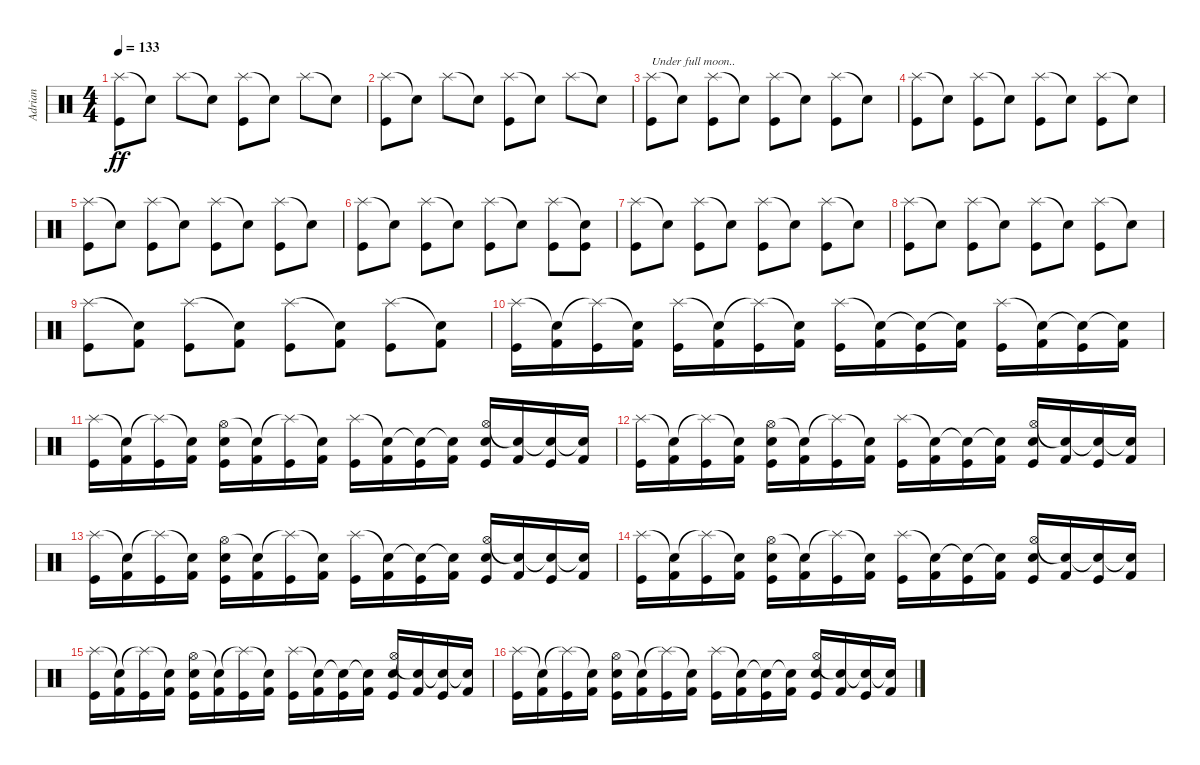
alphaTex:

\track ("Adrian" "Adrian") {instrument percussion}
\staff {score}
\articulation defaults
\ts (4 4)
\tempo 133
\clef neutral
\ks c
("Splash (hit)" "Kick (hit)").8{dy ff} "Snare (hit)"{t}.8 "Splash (hit)".8 "Snare (hit)"{t}.8 ("Splash (hit)" "Kick (hit)").8 "Snare (hit)"{t}.8 "Splash (hit)".8 "Snare (hit)"{t}.8 |
("Splash (hit)" "Kick (hit)").8 "Snare (hit)"{t}.8 "Splash (hit)".8 "Snare (hit)"{t}.8 ("Splash (hit)" "Kick (hit)").8 "Snare (hit)"{t}.8 "Splash (hit)".8 "Snare (hit)"{t}.8 |
("Splash (hit)" "Kick (hit)").8{txt "Under full moon.."} "Snare (hit)"{t}.8 ("Splash (hit)" "Kick (hit)").8 "Snare (hit)"{t}.8 ("Splash (hit)" "Kick (hit)").8 "Snare (hit)"{t}.8 ("Splash (hit)" "Kick (hit)").8 "Snare (hit)"{t}.8 |
("Splash (hit)" "Kick (hit)").8 "Snare (hit)"{t}.8 ("Splash (hit)" "Kick (hit)").8 "Snare (hit)"{t}.8 ("Splash (hit)" "Kick (hit)").8 "Snare (hit)"{t}.8 ("Splash (hit)" "Kick (hit)").8 "Snare (hit)"{t}.8 |
("Splash (hit)" "Kick (hit)").8 "Snare (hit)"{t}.8 ("Splash (hit)" "Kick (hit)").8 "Snare (hit)"{t}.8 ("Splash (hit)" "Kick (hit)").8 "Snare (hit)"{t}.8 ("Splash (hit)" "Kick (hit)").8 "Snare (hit)"{t}.8 |
("Splash (hit)" "Kick (hit)").8 "Snare (hit)"{t}.8 ("Splash (hit)" "Kick (hit)").8 "Snare (hit)"{t}.8 ("Splash (hit)" "Kick (hit)").8 "Snare (hit)"{t}.8 ("Splash (hit)" "Kick (hit)").8 ("Snare (hit)"{t} "Kick (hit)").8 |
("Splash (hit)" "Kick (hit)").8 "Snare (hit)"{t}.8 ("Splash (hit)" "Kick (hit)").8 "Snare (hit)"{t}.8 ("Splash (hit)" "Kick (hit)").8 "Snare (hit)"{t}.8 ("Splash (hit)" "Kick (hit)").8 "Snare (hit)"{t}.8 |
("Splash (hit)" "Kick (hit)").8 "Snare (hit)"{t}.8 ("Splash (hit)" "Kick (hit)").8 "Snare (hit)"{t}.8 ("Splash (hit)" "Kick (hit)").8 "Snare (hit)"{t}.8 ("Splash (hit)" "Kick (hit)").8 "Snare (hit)"{t}.8 |
("Splash (hit)" "Kick (hit)").8 ("Snare (hit)"{t} "Kick (hit) 2").8 ("Splash (hit)" "Kick (hit)").8 ("Snare (hit)"{t} "Kick (hit) 2").8 ("Splash (hit)" "Kick (hit)").8 ("Snare (hit)"{t} "Kick (hit) 2").8 ("Splash (hit)" "Kick (hit)").8 ("Snare (hit)"{t} "Kick (hit) 2").8 |
("Splash (hit)" "Kick (hit)").16 ("Snare (hit)"{t} "Kick (hit) 2").16 ("Splash (hit)"{t} "Kick (hit)").16 ("Snare (hit)"{t} "Kick (hit) 2").16 ("Splash (hit)" "Kick (hit)").16 ("Snare (hit)"{t} "Kick (hit) 2").16 ("Splash (hit)"{t} "Kick (hit)").16 ("Snare (hit)"{t} "Kick (hit) 2").16 ("Splash (hit)" "Kick (hit)").16 ("Snare (hit)"{t} "Kick (hit) 2").16 ("Snare (hit)"{t} "Kick (hit)").16 ("Snare (hit)"{t} "Kick (hit) 2").16 ("Splash (hit)" "Kick (hit)").16 ("Snare (hit)"{t} "Kick (hit) 2").16 ("Snare (hit)"{t} "Kick (hit)").16 ("Snare (hit)"{t} "Kick (hit) 2").16 |
("Splash (hit)" "Kick (hit)").16 ("Snare (hit)"{t} "Kick (hit) 2").16 ("Splash (hit)"{t} "Kick (hit)").16 ("Snare (hit)"{t} "Kick (hit) 2").16 ("Hi-Hat (open)" "Electric Snare (hit)" "Kick (hit)").16 ("Snare (hit)"{t} "Kick (hit) 2").16 ("Splash (hit)"{t} "Kick (hit)").16 ("Snare (hit)"{t} "Kick (hit) 2").16 ("Splash (hit)" "Kick (hit)").16 ("Snare (hit)"{t} "Kick (hit) 2").16 ("Snare (hit)"{t} "Kick (hit)").16 ("Snare (hit)"{t} "Kick (hit) 2").16 ("Hi-Hat (open)" "Electric Snare (hit)" "Kick (hit)").16 ("Snare (hit)"{t} "Kick (hit) 2").16 ("Snare (hit)"{t} "Kick (hit)").16 ("Snare (hit)"{t} "Kick (hit) 2").16 |
("Splash (hit)" "Kick (hit)").16 ("Snare (hit)"{t} "Kick (hit) 2").16 ("Splash (hit)"{t} "Kick (hit)").16 ("Snare (hit)"{t} "Kick (hit) 2").16 ("Hi-Hat (open)" "Electric Snare (hit)" "Kick (hit)").16 ("Snare (hit)"{t} "Kick (hit) 2").16 ("Splash (hit)"{t} "Kick (hit)").16 ("Snare (hit)"{t} "Kick (hit) 2").16 ("Splash (hit)" "Kick (hit)").16 ("Snare (hit)"{t} "Kick (hit) 2").16 ("Snare (hit)"{t} "Kick (hit)").16 ("Snare (hit)"{t} "Kick (hit) 2").16 ("Hi-Hat (open)" "Electric Snare (hit)" "Kick (hit)").16 ("Snare (hit)"{t} "Kick (hit) 2").16 ("Snare (hit)"{t} "Kick (hit)").16 ("Snare (hit)"{t} "Kick (hit) 2").16 |
("Splash (hit)" "Kick (hit)").16 ("Snare (hit)"{t} "Kick (hit) 2").16 ("Splash (hit)"{t} "Kick (hit)").16 ("Snare (hit)"{t} "Kick (hit) 2").16 ("Hi-Hat (open)" "Electric Snare (hit)" "Kick (hit)").16 ("Snare (hit)"{t} "Kick (hit) 2").16 ("Splash (hit)"{t} "Kick (hit)").16 ("Snare (hit)"{t} "Kick (hit) 2").16 ("Splash (hit)" "Kick (hit)").16 ("Snare (hit)"{t} "Kick (hit) 2").16 ("Snare (hit)"{t} "Kick (hit)").16 ("Snare (hit)"{t} "Kick (hit) 2").16 ("Hi-Hat (open)" "Electric Snare (hit)" "Kick (hit)").16 ("Snare (hit)"{t} "Kick (hit) 2").16 ("Snare (hit)"{t} "Kick (hit)").16 ("Snare (hit)"{t} "Kick (hit) 2").16 |
("Splash (hit)" "Kick (hit)").16 ("Snare (hit)"{t} "Kick (hit) 2").16 ("Splash (hit)"{t} "Kick (hit)").16 ("Snare (hit)"{t} "Kick (hit) 2").16 ("Hi-Hat (open)" "Electric Snare (hit)" "Kick (hit)").16 ("Snare (hit)"{t} "Kick (hit) 2").16 ("Splash (hit)"{t} "Kick (hit)").16 ("Snare (hit)"{t} "Kick (hit) 2").16 ("Splash (hit)" "Kick (hit)").16 ("Snare (hit)"{t} "Kick (hit) 2").16 ("Snare (hit)"{t} "Kick (hit)").16 ("Snare (hit)"{t} "Kick (hit) 2").16 ("Hi-Hat (open)" "Electric Snare (hit)" "Kick (hit)").16 ("Snare (hit)"{t} "Kick (hit) 2").16 ("Snare (hit)"{t} "Kick (hit)").16 ("Snare (hit)"{t} "Kick (hit) 2").16 |
("Splash (hit)" "Kick (hit)").16 ("Snare (hit)"{t} "Kick (hit) 2").16 ("Splash (hit)"{t} "Kick (hit)").16 ("Snare (hit)"{t} "Kick (hit) 2").16 ("Hi-Hat (open)" "Electric Snare (hit)" "Kick (hit)").16 ("Snare (hit)"{t} "Kick (hit) 2").16 ("Splash (hit)"{t} "Kick (hit)").16 ("Snare (hit)"{t} "Kick (hit) 2").16 ("Splash (hit)" "Kick (hit)").16 ("Snare (hit)"{t} "Kick (hit) 2").16 ("Snare (hit)"{t} "Kick (hit)").16 ("Snare (hit)"{t} "Kick (hit) 2").16 ("Hi-Hat (open)" "Electric Snare (hit)" "Kick (hit)").16 ("Snare (hit)"{t} "Kick (hit) 2").16 ("Snare (hit)"{t} "Kick (hit)").16 ("Snare (hit)"{t} "Kick (hit) 2").16 |
("Splash (hit)" "Kick (hit)").16 ("Snare (hit)"{t} "Kick (hit) 2").16 ("Splash (hit)"{t} "Kick (hit)").16 ("Snare (hit)"{t} "Kick (hit) 2").16 ("Hi-Hat (open)" "Electric Snare (hit)" "Kick (hit)").16 ("Snare (hit)"{t} "Kick (hit) 2").16 ("Splash (hit)"{t} "Kick (hit)").16 ("Snare (hit)"{t} "Kick (hit) 2").16 ("Splash (hit)" "Kick (hit)").16 ("Snare (hit)"{t} "Kick (hit) 2").16 ("Snare (hit)"{t} "Kick (hit)").16 ("Snare (hit)"{t} "Kick (hit) 2").16 ("Hi-Hat (open)" "Electric Snare (hit)" "Kick (hit)").16 ("Snare (hit)"{t} "Kick (hit) 2").16 ("Snare (hit)"{t} "Kick (hit)").16 ("Snare (hit)"{t} "Kick (hit) 2").16
